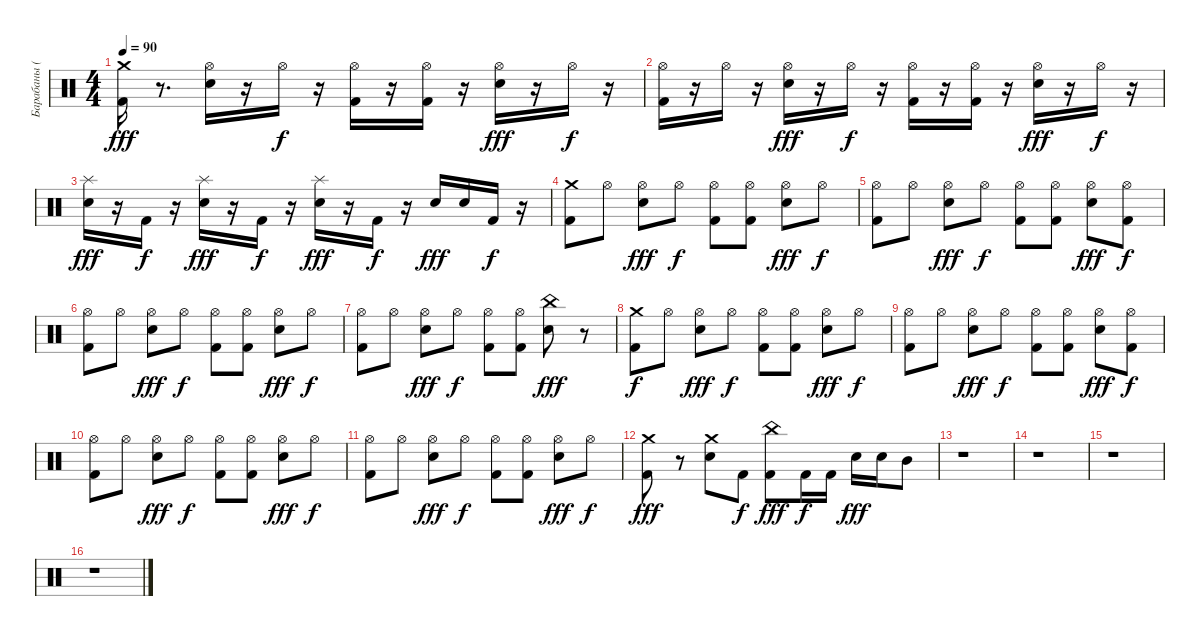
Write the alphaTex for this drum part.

\track ("Барабаны (Илья)" "Барабаны (") {instrument percussion}
\staff {score}
\articulation defaults
\ts (4 4)
\tempo 90
\clef neutral
\ks c
("Kick (hit) 2" "Crash medium (hit)").16{dy fff} r.8{d} ("Snare (hit) 2" "Hi-Hat (open)").16 r.16 "Hi-Hat (open)".16{dy f} r.16 ("Hi-Hat (open)" "Kick (hit) 2").16 r.16 ("Kick (hit) 2" "Hi-Hat (open)").16 r.16 ("Hi-Hat (open)" "Snare (hit) 2").16{dy fff} r.16 "Hi-Hat (open)".16{dy f} r.16 |
("Kick (hit) 2" "Hi-Hat (open)").16 r.16 "Hi-Hat (open)".16 r.16 ("Snare (hit) 2" "Hi-Hat (open)").16{dy fff} r.16 "Hi-Hat (open)".16{dy f} r.16 ("Hi-Hat (open)" "Kick (hit) 2").16 r.16 ("Hi-Hat (open)" "Kick (hit) 2").16 r.16 ("Hi-Hat (open)" "Snare (hit) 2").16{dy fff} r.16 "Hi-Hat (open)".16{dy f} r.16 |
("Splash (hit)" "Snare (hit) 2").16{dy fff} r.16 "Kick (hit) 2".16{dy f} r.16 ("Splash (hit)" "Snare (hit) 2").16{dy fff} r.16 "Kick (hit) 2".16{dy f} r.16 ("Splash (hit)" "Snare (hit) 2").16{dy fff} r.16 "Kick (hit) 2".16{dy f} r.16 "Snare (hit) 2".16{dy fff} "Snare (hit) 2".16 "Kick (hit) 2".16{dy f} r.16 |
("Kick (hit) 2" "Crash medium (hit)").8 "Hi-Hat (open)".8 ("Snare (hit) 2" "Hi-Hat (open)").8{dy fff} "Hi-Hat (open)".8{dy f} ("Kick (hit) 2" "Hi-Hat (open)").8 ("Kick (hit) 2" "Hi-Hat (open)").8 ("Hi-Hat (open)" "Snare (hit) 2").8{dy fff} "Hi-Hat (open)".8{dy f} |
("Hi-Hat (open)" "Kick (hit) 2").8 "Hi-Hat (open)".8 ("Snare (hit) 2" "Hi-Hat (open)").8{dy fff} "Hi-Hat (open)".8{dy f} ("Hi-Hat (open)" "Kick (hit) 2").8 ("Kick (hit) 2" "Hi-Hat (open)").8 ("Snare (hit) 2" "Hi-Hat (open)").8{dy fff} ("Kick (hit) 2" "Hi-Hat (open)").8{dy f} |
("Kick (hit) 2" "Hi-Hat (open)").8 "Hi-Hat (open)".8 ("Snare (hit) 2" "Hi-Hat (open)").8{dy fff} "Hi-Hat (open)".8{dy f} ("Kick (hit) 2" "Hi-Hat (open)").8 ("Hi-Hat (open)" "Kick (hit) 2").8 ("Snare (hit) 2" "Hi-Hat (open)").8{dy fff} "Hi-Hat (open)".8{dy f} |
("Kick (hit) 2" "Hi-Hat (open)").8 "Hi-Hat (open)".8 ("Hi-Hat (open)" "Snare (hit) 2").8{dy fff} "Hi-Hat (open)".8{dy f} ("Kick (hit) 2" "Hi-Hat (open)").8 ("Kick (hit) 2" "Hi-Hat (open)").8 ("China (hit)" "Snare (hit) 2").8{dy fff} r.8 |
("Kick (hit) 2" "Crash medium (hit)").8{dy f} "Hi-Hat (open)".8 ("Snare (hit) 2" "Hi-Hat (open)").8{dy fff} "Hi-Hat (open)".8{dy f} ("Kick (hit) 2" "Hi-Hat (open)").8 ("Hi-Hat (open)" "Kick (hit) 2").8 ("Snare (hit) 2" "Hi-Hat (open)").8{dy fff} "Hi-Hat (open)".8{dy f} |
("Kick (hit) 2" "Hi-Hat (open)").8 "Hi-Hat (open)".8 ("Snare (hit) 2" "Hi-Hat (open)").8{dy fff} "Hi-Hat (open)".8{dy f} ("Kick (hit) 2" "Hi-Hat (open)").8 ("Hi-Hat (open)" "Kick (hit) 2").8 ("Snare (hit) 2" "Hi-Hat (open)").8{dy fff} ("Hi-Hat (open)" "Kick (hit) 2").8{dy f} |
("Kick (hit) 2" "Hi-Hat (open)").8 "Hi-Hat (open)".8 ("Snare (hit) 2" "Hi-Hat (open)").8{dy fff} "Hi-Hat (open)".8{dy f} ("Kick (hit) 2" "Hi-Hat (open)").8 ("Hi-Hat (open)" "Kick (hit) 2").8 ("Snare (hit) 2" "Hi-Hat (open)").8{dy fff} "Hi-Hat (open)".8{dy f} |
("Kick (hit) 2" "Hi-Hat (open)").8 "Hi-Hat (open)".8 ("Snare (hit) 2" "Hi-Hat (open)").8{dy fff} "Hi-Hat (open)".8{dy f} ("Hi-Hat (open)" "Kick (hit) 2").8 ("Hi-Hat (open)" "Kick (hit) 2").8 ("Snare (hit) 2" "Hi-Hat (open)").8{dy fff} "Hi-Hat (open)".8{dy f} |
("Crash medium (hit)" "Kick (hit) 2").8{dy fff} r.8 ("Crash medium (hit)" "Snare (hit) 2").8 "Kick (hit) 2".8{dy f} ("China (hit)" "Kick (hit) 2").8{dy fff} "Kick (hit) 2".16{dy f} "Kick (hit) 2".16 "Snare (hit) 2".16{dy fff} "Snare (hit) 2".16 "Mid Tom (hit)".8 |
r.1 |
r.1 |
r.1 |
r.1
